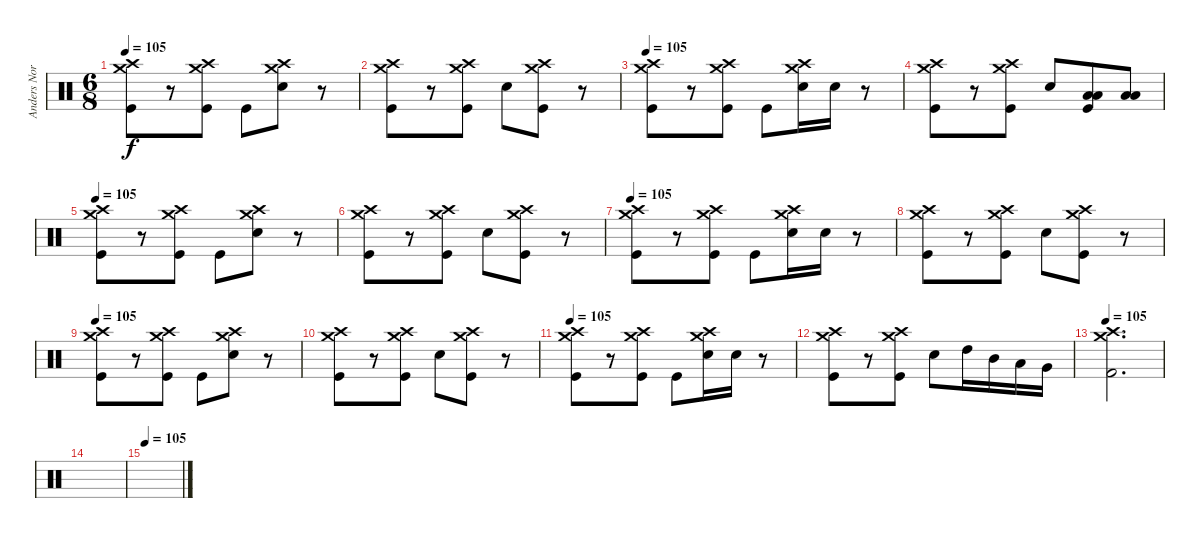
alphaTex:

\track ("Anders Nordin" "Anders Nor") {instrument percussion}
\staff {score}
\articulation defaults
\ts (6 8)
\tempo 105
\clef neutral
\ks c
("Crash high (hit)" "Crash medium (hit)" "Kick (hit)").8{dy f} r.8 ("Crash high (hit)" "Crash medium (hit)" "Kick (hit)").8 "Kick (hit)".8 ("Crash high (hit)" "Crash medium (hit)" "Electric Snare (hit)").8 r.8 |
("Crash high (hit)" "Crash medium (hit)" "Kick (hit)").8 r.8 ("Crash high (hit)" "Crash medium (hit)" "Kick (hit)").8 "Electric Snare (hit)".8 ("Crash high (hit)" "Crash medium (hit)" "Kick (hit)").8 r.8 |
\tempo 105
("Crash high (hit)" "Crash medium (hit)" "Kick (hit)").8 r.8 ("Crash high (hit)" "Crash medium (hit)" "Kick (hit)").8 "Kick (hit)".8 ("Crash high (hit)" "Crash medium (hit)" "Electric Snare (hit)").16 "Electric Snare (hit)".16 r.8 |
("Crash high (hit)" "Crash medium (hit)" "Kick (hit)").8 r.8 ("Crash high (hit)" "Crash medium (hit)" "Kick (hit)").8 "Electric Snare (hit)".8 ("Low Floor Tom (hit)" "Low Floor Tom (hit)" "Kick (hit)").8 ("Low Floor Tom (hit)" "Low Floor Tom (hit)").8 |
\tempo 105
("Crash high (hit)" "Crash medium (hit)" "Kick (hit)").8 r.8 ("Crash high (hit)" "Crash medium (hit)" "Kick (hit)").8 "Kick (hit)".8 ("Crash high (hit)" "Crash medium (hit)" "Electric Snare (hit)").8 r.8 |
("Crash high (hit)" "Crash medium (hit)" "Kick (hit)").8 r.8 ("Crash high (hit)" "Crash medium (hit)" "Kick (hit)").8 "Electric Snare (hit)".8 ("Crash high (hit)" "Crash medium (hit)" "Kick (hit)").8 r.8 |
\tempo 105
("Crash high (hit)" "Crash medium (hit)" "Kick (hit)").8 r.8 ("Crash high (hit)" "Crash medium (hit)" "Kick (hit)").8 "Kick (hit)".8 ("Crash high (hit)" "Crash medium (hit)" "Electric Snare (hit)").16 "Electric Snare (hit)".16 r.8 |
("Crash high (hit)" "Crash medium (hit)" "Kick (hit)").8 r.8 ("Crash high (hit)" "Crash medium (hit)" "Kick (hit)").8 "Electric Snare (hit)".8 ("Crash high (hit)" "Crash medium (hit)" "Kick (hit)").8 r.8 |
\tempo 105
("Crash high (hit)" "Crash medium (hit)" "Kick (hit)").8 r.8 ("Crash high (hit)" "Crash medium (hit)" "Kick (hit)").8 "Kick (hit)".8 ("Crash high (hit)" "Crash medium (hit)" "Electric Snare (hit)").8 r.8 |
("Crash high (hit)" "Crash medium (hit)" "Kick (hit)").8 r.8 ("Crash high (hit)" "Crash medium (hit)" "Kick (hit)").8 "Electric Snare (hit)".8 ("Crash high (hit)" "Crash medium (hit)" "Kick (hit)").8 r.8 |
\tempo 105
("Crash high (hit)" "Crash medium (hit)" "Kick (hit)").8 r.8 ("Crash high (hit)" "Crash medium (hit)" "Kick (hit)").8 "Kick (hit)".8 ("Crash high (hit)" "Crash medium (hit)" "Electric Snare (hit)").16 "Electric Snare (hit)".16 r.8 |
("Crash high (hit)" "Crash medium (hit)" "Kick (hit)").8 r.8 ("Crash high (hit)" "Crash medium (hit)" "Kick (hit)").8 "Electric Snare (hit)".8 "High Tom (hit)".16 "Mid Tom (hit)".16 "Low Tom (hit)".16 "Very Low Tom (hit)".16 |
\tempo 105
("Kick (hit) 2" "Crash medium (hit)" "Crash high (hit)").2{d} |
|
\tempo 105
